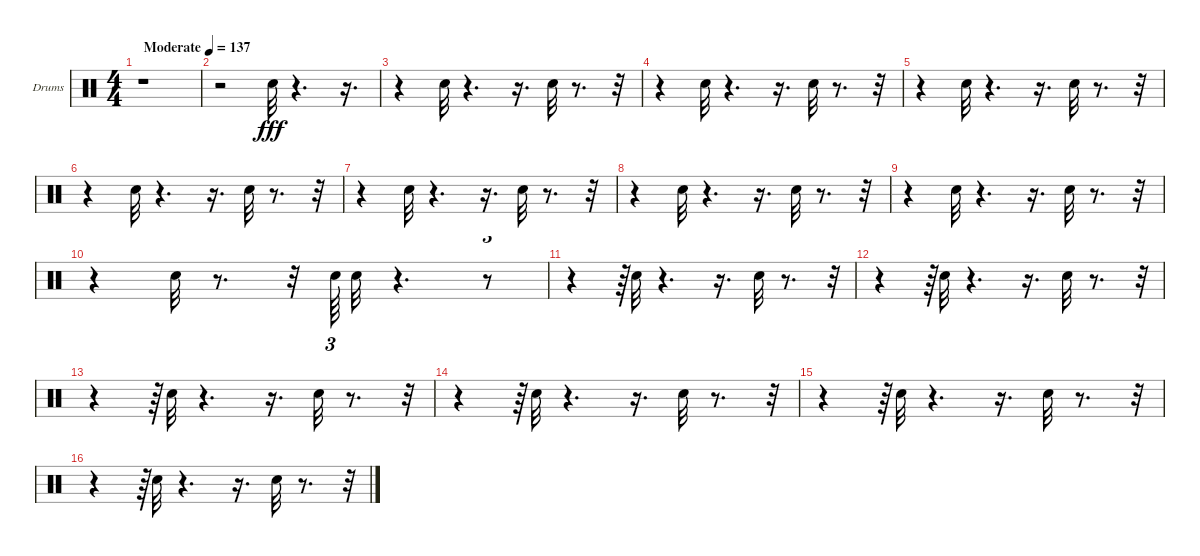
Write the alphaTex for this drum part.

\bracketExtendMode groupsimilarinstruments
\firstSystemTrackNameOrientation horizontal
\otherSystemsTrackNameOrientation horizontal
\track ("Drumkit" "Drums") {instrument percussion}
\staff {score}
\articulation defaults
\ts (4 4)
\beaming (8 2 2 2 2)
\tempo (137 "Moderate")
\clef neutral
\ks c
r.1{dy fff} |
r.2 "Snare (hit) 2".32 r.4{d} r.16{d} |
r.4 "Snare (hit) 2".32 r.4{d} r.16{d} "Snare (hit) 2".32 r.8{d} r.32 |
r.4 "Snare (hit) 2".32 r.4{d} r.16{d} "Snare (hit) 2".32 r.8{d} r.32 |
r.4 "Snare (hit) 2".32 r.4{d} r.16{d} "Snare (hit) 2".32 r.8{d} r.32 |
r.4 "Snare (hit) 2".32 r.4{d} r.16{d} "Snare (hit) 2".32 r.8{d} r.32 |
r.4 "Snare (hit) 2".32 r.4{d} r.16{d} "Snare (hit) 2".32 r.8{d} r.32 |
r.4 "Snare (hit) 2".32 r.4{d} r.16{d} "Snare (hit) 2".32 r.8{d} r.32 |
r.4 "Snare (hit) 2".32 r.4{d} r.16{d} "Snare (hit) 2".32 r.8{d} r.32 |
r.4 "Snare (hit) 2".32 r.8{d} r.32 "Snare (hit) 2".64{tu (3 2)} "Snare (hit) 2".32 r.4{d} r.8{tu (3 2)} |
r.4 r.64{tu (3 2)} "Snare (hit) 2".32 r.4{d} r.16{d} "Snare (hit) 2".32 r.8{d} r.32{tu (3 2)} |
r.4 r.64{tu (3 2)} "Snare (hit) 2".32 r.4{d} r.16{d} "Snare (hit) 2".32 r.8{d} r.32{tu (3 2)} |
r.4 r.64{tu (3 2)} "Snare (hit) 2".32 r.4{d} r.16{d} "Snare (hit) 2".32 r.8{d} r.32{tu (3 2)} |
r.4 r.64{tu (3 2)} "Snare (hit) 2".32 r.4{d} r.16{d} "Snare (hit) 2".32 r.8{d} r.32{tu (3 2)} |
r.4 r.64{tu (3 2)} "Snare (hit) 2".32 r.4{d} r.16{d} "Snare (hit) 2".32 r.8{d} r.32{tu (3 2)} |
r.4 r.64{tu (3 2)} "Snare (hit) 2".32 r.4{d} r.16{d} "Snare (hit) 2".32 r.8{d} r.32{tu (3 2)}
